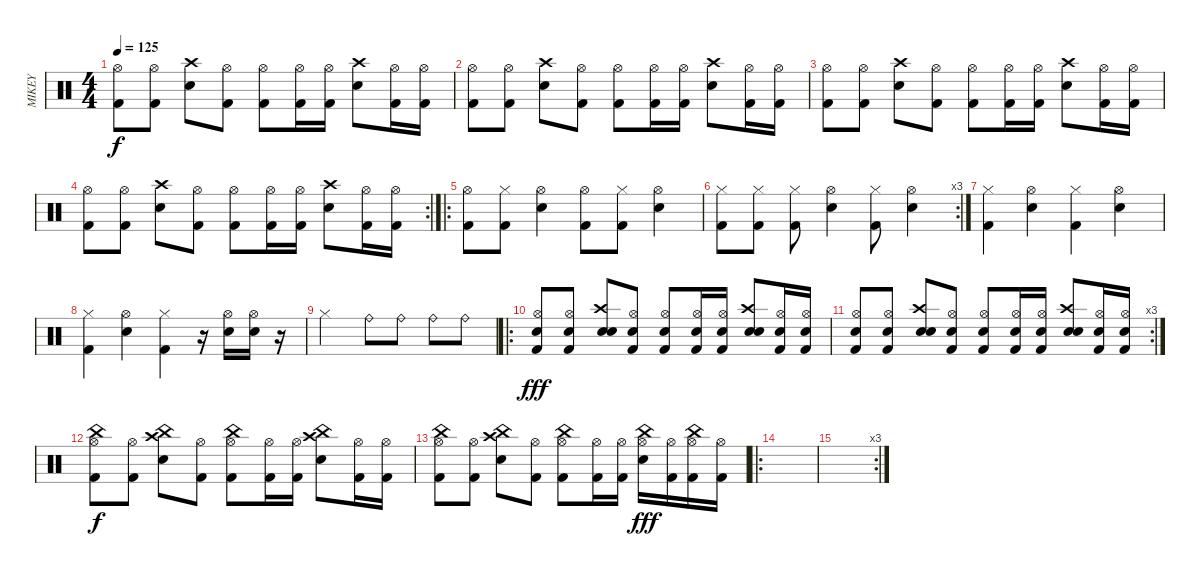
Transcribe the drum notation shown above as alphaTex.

\track ("MIKEY" "MIKEY") {instrument percussion}
\staff {score}
\articulation defaults
\ts (4 4)
\tempo 125
\clef neutral
\ks c
("Kick (hit) 2" "Hi-Hat (open)").8{dy f} ("Kick (hit) 2" "Hi-Hat (open)").8 ("Electric Snare (hit)" "Crash high (hit)").8 ("Kick (hit) 2" "Hi-Hat (open)").8 ("Kick (hit) 2" "Hi-Hat (open)").8 ("Kick (hit) 2" "Hi-Hat (open)").16 ("Kick (hit) 2" "Hi-Hat (open)").16 ("Electric Snare (hit)" "Crash high (hit)").8 ("Kick (hit) 2" "Hi-Hat (open)").16 ("Kick (hit) 2" "Hi-Hat (open)").16 |
("Kick (hit) 2" "Hi-Hat (open)").8 ("Kick (hit) 2" "Hi-Hat (open)").8 ("Electric Snare (hit)" "Crash high (hit)").8 ("Kick (hit) 2" "Hi-Hat (open)").8 ("Kick (hit) 2" "Hi-Hat (open)").8 ("Kick (hit) 2" "Hi-Hat (open)").16 ("Kick (hit) 2" "Hi-Hat (open)").16 ("Electric Snare (hit)" "Crash high (hit)").8 ("Kick (hit) 2" "Hi-Hat (open)").16 ("Kick (hit) 2" "Hi-Hat (open)").16 |
("Kick (hit) 2" "Hi-Hat (open)").8 ("Kick (hit) 2" "Hi-Hat (open)").8 ("Electric Snare (hit)" "Crash high (hit)").8 ("Kick (hit) 2" "Hi-Hat (open)").8 ("Kick (hit) 2" "Hi-Hat (open)").8 ("Kick (hit) 2" "Hi-Hat (open)").16 ("Kick (hit) 2" "Hi-Hat (open)").16 ("Electric Snare (hit)" "Crash high (hit)").8 ("Kick (hit) 2" "Hi-Hat (open)").16 ("Kick (hit) 2" "Hi-Hat (open)").16 |
\rc 2
("Kick (hit) 2" "Hi-Hat (open)").8 ("Kick (hit) 2" "Hi-Hat (open)").8 ("Electric Snare (hit)" "Crash high (hit)").8 ("Kick (hit) 2" "Hi-Hat (open)").8 ("Kick (hit) 2" "Hi-Hat (open)").8 ("Kick (hit) 2" "Hi-Hat (open)").16 ("Kick (hit) 2" "Hi-Hat (open)").16 ("Electric Snare (hit)" "Crash high (hit)").8 ("Kick (hit) 2" "Hi-Hat (open)").16 ("Kick (hit) 2" "Hi-Hat (open)").16 |
\ro
("Hi-Hat (open)" "Kick (hit) 2").8 ("Hi-Hat (closed)" "Kick (hit) 2").8 ("Hi-Hat (open)" "Snare (hit) 2").4 ("Hi-Hat (open)" "Kick (hit) 2").8 ("Hi-Hat (closed)" "Kick (hit) 2").8 ("Hi-Hat (open)" "Snare (hit) 2").4 |
\rc 3
("Hi-Hat (closed)" "Kick (hit) 2").8 ("Hi-Hat (closed)" "Kick (hit) 2").8 ("Hi-Hat (closed)" "Kick (hit) 2").8 ("Hi-Hat (open)" "Snare (hit) 2").4 ("Hi-Hat (closed)" "Kick (hit) 2").8 ("Hi-Hat (open)" "Snare (hit) 2").4 |
("Hi-Hat (closed)" "Kick (hit) 2").4 ("Hi-Hat (open)" "Snare (hit) 2").4 ("Hi-Hat (closed)" "Kick (hit) 2").4 ("Hi-Hat (open)" "Snare (hit) 2").4 |
("Hi-Hat (closed)" "Kick (hit) 2").4 ("Hi-Hat (open)" "Snare (hit) 2").4 ("Hi-Hat (closed)" "Kick (hit) 2").4 r.16 ("Hi-Hat (open)" "Snare (hit) 2").16 ("Hi-Hat (open)" "Snare (hit) 2").16 r.16 |
"Hi-Hat (closed)".2 "Ride (bell)".8 "Ride (bell)".8 "Ride (bell)".8 "Ride (bell)".8 |
\ro
("Snare (hit) 2" "Kick (hit) 2" "Hi-Hat (open)").8{dy fff} ("Snare (hit) 2" "Kick (hit) 2" "Hi-Hat (open)").8 ("Snare (hit) 2" "Electric Snare (hit)" "Crash high (hit)").8 ("Snare (hit) 2" "Kick (hit) 2" "Hi-Hat (open)").8 ("Snare (hit) 2" "Kick (hit) 2" "Hi-Hat (open)").8 ("Snare (hit) 2" "Kick (hit) 2" "Hi-Hat (open)").16 ("Snare (hit) 2" "Kick (hit) 2" "Hi-Hat (open)").16 ("Snare (hit) 2" "Electric Snare (hit)" "Crash high (hit)").8 ("Snare (hit) 2" "Kick (hit) 2" "Hi-Hat (open)").16 ("Snare (hit) 2" "Kick (hit) 2" "Hi-Hat (open)").16 |
\rc 3
("Snare (hit) 2" "Kick (hit) 2" "Hi-Hat (open)").8 ("Snare (hit) 2" "Kick (hit) 2" "Hi-Hat (open)").8 ("Snare (hit) 2" "Electric Snare (hit)" "Crash high (hit)").8 ("Snare (hit) 2" "Kick (hit) 2" "Hi-Hat (open)").8 ("Snare (hit) 2" "Kick (hit) 2" "Hi-Hat (open)").8 ("Snare (hit) 2" "Kick (hit) 2" "Hi-Hat (open)").16 ("Snare (hit) 2" "Kick (hit) 2" "Hi-Hat (open)").16 ("Snare (hit) 2" "Electric Snare (hit)" "Crash high (hit)").8 ("Snare (hit) 2" "Kick (hit) 2" "Hi-Hat (open)").16 ("Snare (hit) 2" "Kick (hit) 2" "Hi-Hat (open)").16 |
("China (hit)" "Kick (hit) 2" "Hi-Hat (open)").8{dy f} ("Kick (hit) 2" "Hi-Hat (open)").8 ("China (hit)" "Electric Snare (hit)" "Crash high (hit)").8 ("Kick (hit) 2" "Hi-Hat (open)").8 ("China (hit)" "Kick (hit) 2" "Hi-Hat (open)").8 ("Kick (hit) 2" "Hi-Hat (open)").16 ("Kick (hit) 2" "Hi-Hat (open)").16 ("China (hit)" "Electric Snare (hit)" "Crash high (hit)").8 ("Kick (hit) 2" "Hi-Hat (open)").16 ("Kick (hit) 2" "Hi-Hat (open)").16 |
("China (hit)" "Kick (hit) 2" "Hi-Hat (open)").8 ("Kick (hit) 2" "Hi-Hat (open)").8 ("China (hit)" "Electric Snare (hit)" "Crash high (hit)").8 ("Kick (hit) 2" "Hi-Hat (open)").8 ("China (hit)" "Kick (hit) 2" "Hi-Hat (open)").8 ("Kick (hit) 2" "Hi-Hat (open)").16 ("Kick (hit) 2" "Hi-Hat (open)").16 ("China (hit)" "Electric Snare (hit)" "Hi-Hat (open)").16{dy fff} ("Kick (hit) 2" "Hi-Hat (open)").16 ("China (hit)" "Kick (hit) 2" "Hi-Hat (open)").16 ("Kick (hit) 2" "Hi-Hat (open)").16 |
\ro
|
\rc 3
